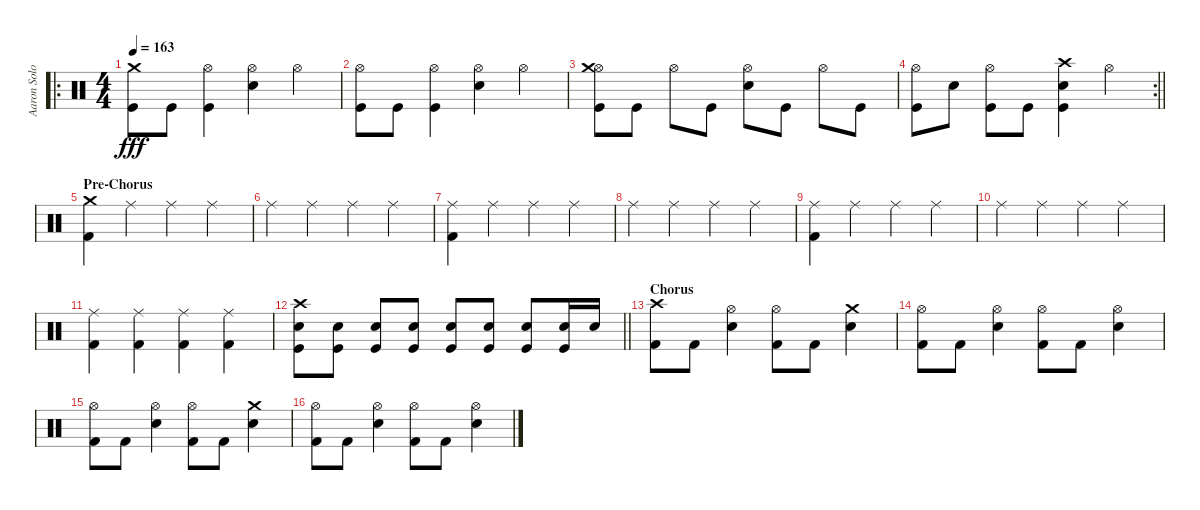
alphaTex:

\track ("Aaron Solowoniuk - Schlagzeug" "Aaron Solo") {instrument percussion}
\staff {score}
\articulation defaults
\ro
\ts (4 4)
\tempo 163
\clef neutral
\ks c
("Crash medium (hit)" "Kick (hit)").8{dy fff} "Kick (hit)".8 ("Hi-Hat (open)" "Kick (hit)").4 ("Hi-Hat (open)" "Electric Snare (hit)").4 "Hi-Hat (open)".4 |
("Hi-Hat (open)" "Kick (hit)").8 "Kick (hit)".8 ("Hi-Hat (open)" "Kick (hit)").4 ("Hi-Hat (open)" "Electric Snare (hit)").4 "Hi-Hat (open)".4 |
("Hi-Hat (open)" "Crash medium (hit)" "Kick (hit)").8 "Kick (hit)".8 "Hi-Hat (open)".8 "Kick (hit)".8 ("Hi-Hat (open)" "Electric Snare (hit)").8 "Kick (hit)".8 "Hi-Hat (open)".8 "Kick (hit)".8 |
\rc 2
\barLineRight lightlight
("Hi-Hat (open)" "Kick (hit)").8 "Electric Snare (hit)".8 ("Hi-Hat (open)" "Kick (hit)").8 "Kick (hit)".8 ("Kick (hit)" "Electric Snare (hit)" "Crash high (hit)").4 "Hi-Hat (open)".4 |
\section ("" "Pre-Chorus")
("Crash medium (hit)" "Kick (hit) 2").4 "Ride (middle)".4 "Ride (middle)".4 "Ride (middle)".4 |
"Ride (middle)".4 "Ride (middle)".4 "Ride (middle)".4 "Ride (middle)".4 |
("Ride (middle)" "Kick (hit) 2").4 "Ride (middle)".4 "Ride (middle)".4 "Ride (middle)".4 |
"Ride (middle)".4 "Ride (middle)".4 "Ride (middle)".4 "Ride (middle)".4 |
("Ride (middle)" "Kick (hit) 2").4 "Ride (middle)".4 "Ride (middle)".4 "Ride (middle)".4 |
"Ride (middle)".4 "Ride (middle)".4 "Ride (middle)".4 "Ride (middle)".4 |
("Ride (middle)" "Kick (hit) 2").4 ("Ride (middle)" "Kick (hit) 2").4 ("Ride (middle)" "Kick (hit) 2").4 ("Ride (middle)" "Kick (hit) 2").4 |
\barLineRight lightlight
("Crash high (hit)" "Electric Snare (hit)" "Kick (hit)").8 ("Electric Snare (hit)" "Kick (hit)").8 ("Electric Snare (hit)" "Kick (hit)").8 ("Electric Snare (hit)" "Kick (hit)").8 ("Electric Snare (hit)" "Kick (hit)").8 ("Electric Snare (hit)" "Kick (hit)").8 ("Electric Snare (hit)" "Kick (hit)").8 ("Electric Snare (hit)" "Kick (hit)").16 "Electric Snare (hit)".16 |
\section ("" "Chorus")
("Crash high (hit)" "Kick (hit) 2").8 "Kick (hit) 2".8 ("Hi-Hat (open)" "Electric Snare (hit)").4 ("Hi-Hat (open)" "Kick (hit) 2").8 "Kick (hit) 2".8 ("Crash medium (hit)" "Electric Snare (hit)").4 |
("Hi-Hat (open)" "Kick (hit) 2").8 "Kick (hit) 2".8 ("Hi-Hat (open)" "Electric Snare (hit)").4 ("Hi-Hat (open)" "Kick (hit) 2").8 "Kick (hit) 2".8 ("Hi-Hat (open)" "Electric Snare (hit)").4 |
("Hi-Hat (open)" "Kick (hit) 2").8 "Kick (hit) 2".8 ("Hi-Hat (open)" "Electric Snare (hit)").4 ("Hi-Hat (open)" "Kick (hit) 2").8 "Kick (hit) 2".8 ("Crash medium (hit)" "Electric Snare (hit)").4 |
("Hi-Hat (open)" "Kick (hit) 2").8 "Kick (hit) 2".8 ("Hi-Hat (open)" "Electric Snare (hit)").4 ("Hi-Hat (open)" "Kick (hit) 2").8 "Kick (hit) 2".8 ("Hi-Hat (open)" "Electric Snare (hit)").4
